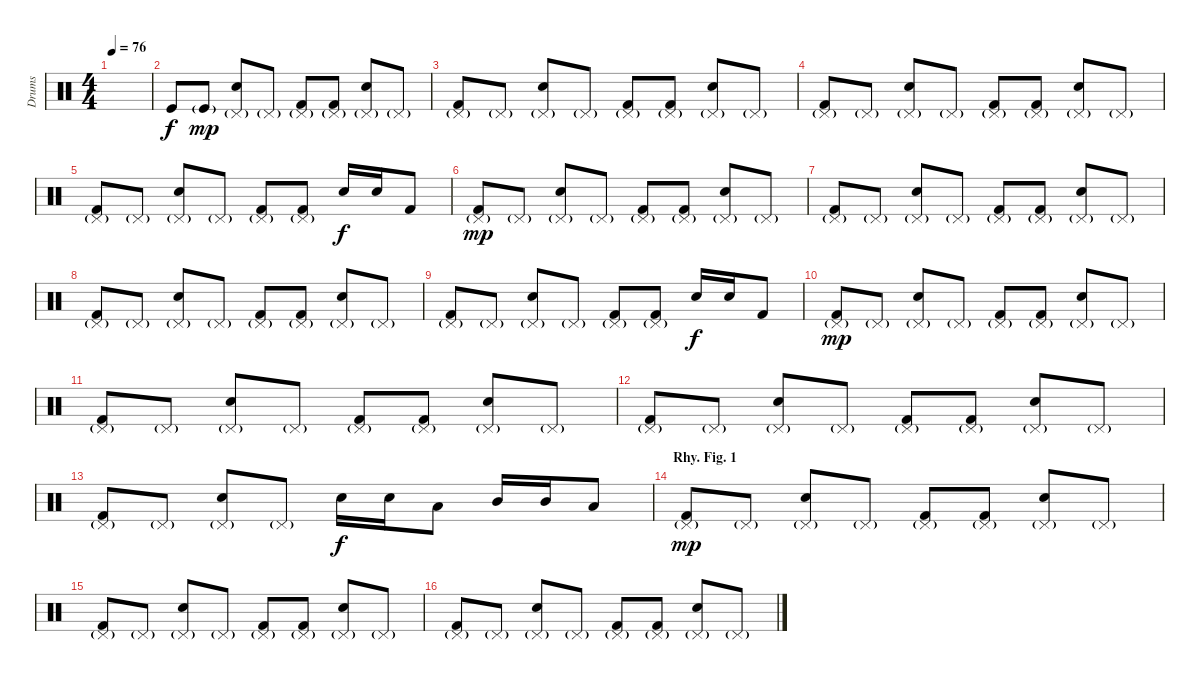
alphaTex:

\track ("Drums" "Drums") {instrument percussion}
\staff {score}
\articulation defaults
\ts (4 4)
\tempo 76
\clef neutral
\ks c
|
"Kick (hit)".8 "Kick (hit)"{g}.8{dy mp} ("Pedal Hi-Hat (hit)"{g} "Snare (hit) 2").8 "Pedal Hi-Hat (hit)"{g}.8 ("Pedal Hi-Hat (hit)"{g} "Kick (hit) 2").8 ("Pedal Hi-Hat (hit)"{g} "Kick (hit) 2").8 ("Pedal Hi-Hat (hit)"{g} "Snare (hit) 2").8 "Pedal Hi-Hat (hit)"{g}.8 |
("Pedal Hi-Hat (hit)"{g} "Kick (hit) 2").8 "Pedal Hi-Hat (hit)"{g}.8 ("Pedal Hi-Hat (hit)"{g} "Snare (hit) 2").8 "Pedal Hi-Hat (hit)"{g}.8 ("Pedal Hi-Hat (hit)"{g} "Kick (hit) 2").8 ("Pedal Hi-Hat (hit)"{g} "Kick (hit) 2").8 ("Pedal Hi-Hat (hit)"{g} "Snare (hit) 2").8 "Pedal Hi-Hat (hit)"{g}.8 |
("Pedal Hi-Hat (hit)"{g} "Kick (hit) 2").8 "Pedal Hi-Hat (hit)"{g}.8 ("Pedal Hi-Hat (hit)"{g} "Snare (hit) 2").8 "Pedal Hi-Hat (hit)"{g}.8 ("Pedal Hi-Hat (hit)"{g} "Kick (hit) 2").8 ("Pedal Hi-Hat (hit)"{g} "Kick (hit) 2").8 ("Pedal Hi-Hat (hit)"{g} "Snare (hit) 2").8 "Pedal Hi-Hat (hit)"{g}.8 |
("Pedal Hi-Hat (hit)"{g} "Kick (hit) 2").8 "Pedal Hi-Hat (hit)"{g}.8 ("Pedal Hi-Hat (hit)"{g} "Snare (hit) 2").8 "Pedal Hi-Hat (hit)"{g}.8 ("Pedal Hi-Hat (hit)"{g} "Kick (hit) 2").8 ("Pedal Hi-Hat (hit)"{g} "Kick (hit) 2").8 "Snare (hit) 2".16{dy f} "Snare (hit) 2".16 "Kick (hit) 2".8 |
("Pedal Hi-Hat (hit)"{g} "Kick (hit) 2").8{dy mp} "Pedal Hi-Hat (hit)"{g}.8 ("Pedal Hi-Hat (hit)"{g} "Snare (hit) 2").8 "Pedal Hi-Hat (hit)"{g}.8 ("Pedal Hi-Hat (hit)"{g} "Kick (hit) 2").8 ("Pedal Hi-Hat (hit)"{g} "Kick (hit) 2").8 ("Pedal Hi-Hat (hit)"{g} "Snare (hit) 2").8 "Pedal Hi-Hat (hit)"{g}.8 |
("Pedal Hi-Hat (hit)"{g} "Kick (hit) 2").8 "Pedal Hi-Hat (hit)"{g}.8 ("Pedal Hi-Hat (hit)"{g} "Snare (hit) 2").8 "Pedal Hi-Hat (hit)"{g}.8 ("Pedal Hi-Hat (hit)"{g} "Kick (hit) 2").8 ("Pedal Hi-Hat (hit)"{g} "Kick (hit) 2").8 ("Pedal Hi-Hat (hit)"{g} "Snare (hit) 2").8 "Pedal Hi-Hat (hit)"{g}.8 |
("Pedal Hi-Hat (hit)"{g} "Kick (hit) 2").8 "Pedal Hi-Hat (hit)"{g}.8 ("Pedal Hi-Hat (hit)"{g} "Snare (hit) 2").8 "Pedal Hi-Hat (hit)"{g}.8 ("Pedal Hi-Hat (hit)"{g} "Kick (hit) 2").8 ("Pedal Hi-Hat (hit)"{g} "Kick (hit) 2").8 ("Pedal Hi-Hat (hit)"{g} "Snare (hit) 2").8 "Pedal Hi-Hat (hit)"{g}.8 |
("Pedal Hi-Hat (hit)"{g} "Kick (hit) 2").8 "Pedal Hi-Hat (hit)"{g}.8 ("Pedal Hi-Hat (hit)"{g} "Snare (hit) 2").8 "Pedal Hi-Hat (hit)"{g}.8 ("Pedal Hi-Hat (hit)"{g} "Kick (hit) 2").8 ("Pedal Hi-Hat (hit)"{g} "Kick (hit) 2").8 "Snare (hit) 2".16{dy f} "Snare (hit) 2".16 "Kick (hit) 2".8 |
("Pedal Hi-Hat (hit)"{g} "Kick (hit) 2").8{dy mp} "Pedal Hi-Hat (hit)"{g}.8 ("Pedal Hi-Hat (hit)"{g} "Snare (hit) 2").8 "Pedal Hi-Hat (hit)"{g}.8 ("Pedal Hi-Hat (hit)"{g} "Kick (hit) 2").8 ("Pedal Hi-Hat (hit)"{g} "Kick (hit) 2").8 ("Pedal Hi-Hat (hit)"{g} "Snare (hit) 2").8 "Pedal Hi-Hat (hit)"{g}.8 |
("Pedal Hi-Hat (hit)"{g} "Kick (hit) 2").8 "Pedal Hi-Hat (hit)"{g}.8 ("Pedal Hi-Hat (hit)"{g} "Snare (hit) 2").8 "Pedal Hi-Hat (hit)"{g}.8 ("Pedal Hi-Hat (hit)"{g} "Kick (hit) 2").8 ("Pedal Hi-Hat (hit)"{g} "Kick (hit) 2").8 ("Pedal Hi-Hat (hit)"{g} "Snare (hit) 2").8 "Pedal Hi-Hat (hit)"{g}.8 |
("Pedal Hi-Hat (hit)"{g} "Kick (hit) 2").8 "Pedal Hi-Hat (hit)"{g}.8 ("Pedal Hi-Hat (hit)"{g} "Snare (hit) 2").8 "Pedal Hi-Hat (hit)"{g}.8 ("Pedal Hi-Hat (hit)"{g} "Kick (hit) 2").8 ("Pedal Hi-Hat (hit)"{g} "Kick (hit) 2").8 ("Pedal Hi-Hat (hit)"{g} "Snare (hit) 2").8 "Pedal Hi-Hat (hit)"{g}.8 |
("Pedal Hi-Hat (hit)"{g} "Kick (hit) 2").8 "Pedal Hi-Hat (hit)"{g}.8 ("Pedal Hi-Hat (hit)"{g} "Snare (hit) 2").8 "Pedal Hi-Hat (hit)"{g}.8 "Snare (hit) 2".16{dy f} "Snare (hit) 2".16 "Low Tom (hit)".8 "Mid Tom (hit)".16 "Mid Tom (hit)".16 "Low Tom (hit)".8 |
\section ("" "Rhy. Fig. 1")
("Pedal Hi-Hat (hit)"{g} "Kick (hit) 2").8{dy mp} "Pedal Hi-Hat (hit)"{g}.8 ("Pedal Hi-Hat (hit)"{g} "Snare (hit) 2").8 "Pedal Hi-Hat (hit)"{g}.8 ("Pedal Hi-Hat (hit)"{g} "Kick (hit) 2").8 ("Pedal Hi-Hat (hit)"{g} "Kick (hit) 2").8 ("Pedal Hi-Hat (hit)"{g} "Snare (hit) 2").8 "Pedal Hi-Hat (hit)"{g}.8 |
("Pedal Hi-Hat (hit)"{g} "Kick (hit) 2").8 "Pedal Hi-Hat (hit)"{g}.8 ("Pedal Hi-Hat (hit)"{g} "Snare (hit) 2").8 "Pedal Hi-Hat (hit)"{g}.8 ("Pedal Hi-Hat (hit)"{g} "Kick (hit) 2").8 ("Pedal Hi-Hat (hit)"{g} "Kick (hit) 2").8 ("Pedal Hi-Hat (hit)"{g} "Snare (hit) 2").8 "Pedal Hi-Hat (hit)"{g}.8 |
("Pedal Hi-Hat (hit)"{g} "Kick (hit) 2").8 "Pedal Hi-Hat (hit)"{g}.8 ("Pedal Hi-Hat (hit)"{g} "Snare (hit) 2").8 "Pedal Hi-Hat (hit)"{g}.8 ("Pedal Hi-Hat (hit)"{g} "Kick (hit) 2").8 ("Pedal Hi-Hat (hit)"{g} "Kick (hit) 2").8 ("Pedal Hi-Hat (hit)"{g} "Snare (hit) 2").8 "Pedal Hi-Hat (hit)"{g}.8
